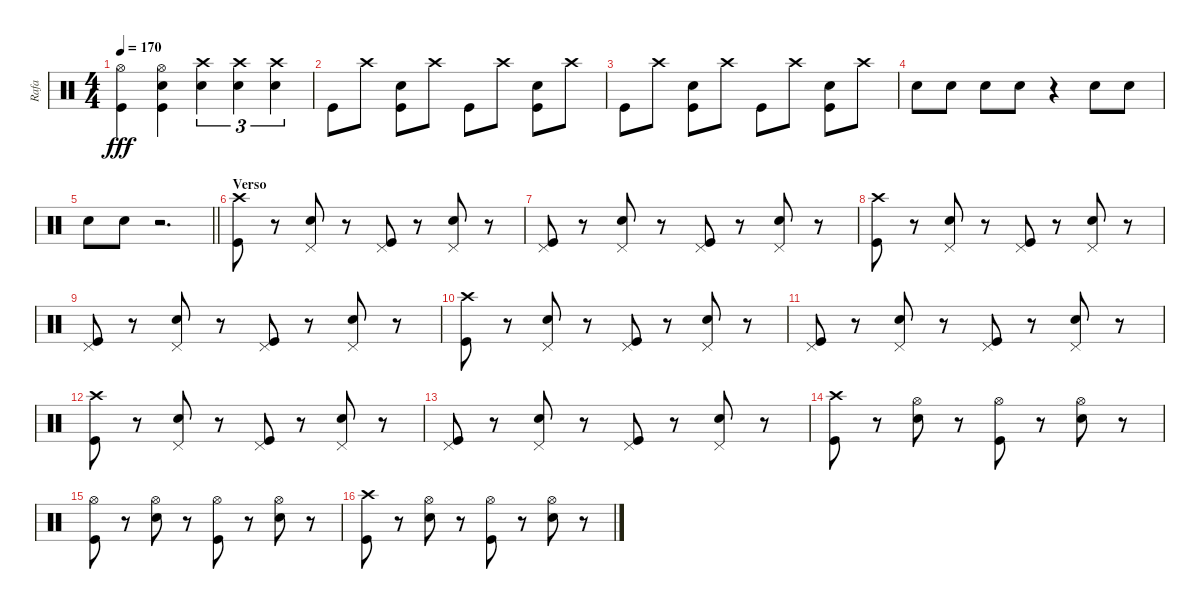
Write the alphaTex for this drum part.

\track ("Rafa" "Rafa") {instrument percussion}
\staff {score}
\articulation defaults
\ts (4 4)
\tempo 170
\clef neutral
\ks c
("Hi-Hat (open)" "Kick (hit)").4{dy fff} ("Hi-Hat (open)" "Electric Snare (hit)" "Kick (hit)").4 ("Crash high (hit)" "Electric Snare (hit)").4{tu (3 2)} ("Crash high (hit)" "Electric Snare (hit)").4{tu (3 2)} ("Crash high (hit)" "Electric Snare (hit)").4{tu (3 2)} |
"Kick (hit)".8 "Crash high (hit)".8 ("Electric Snare (hit)" "Kick (hit)").8 "Crash high (hit)".8 "Kick (hit)".8 "Crash high (hit)".8 ("Electric Snare (hit)" "Kick (hit)").8 "Crash high (hit)".8 |
"Kick (hit)".8 "Crash high (hit)".8 ("Electric Snare (hit)" "Kick (hit)").8 "Crash high (hit)".8 "Kick (hit)".8 "Crash high (hit)".8 ("Electric Snare (hit)" "Kick (hit)").8 "Crash high (hit)".8 |
"Electric Snare (hit)".8 "Electric Snare (hit)".8 "Electric Snare (hit)".8 "Electric Snare (hit)".8 r.4 "Electric Snare (hit)".8 "Electric Snare (hit)".8 |
\barLineRight lightlight "Electric Snare (hit)".8 "Electric Snare (hit)".8
r.2{d} |
\section ("" "Verso")
("Crash high (hit)" "Kick (hit)").8 r.8 ("Pedal Hi-Hat (hit)" "Electric Snare (hit)").8 r.8 ("Pedal Hi-Hat (hit)" "Kick (hit)").8 r.8 ("Pedal Hi-Hat (hit)" "Electric Snare (hit)").8 r.8 |
("Pedal Hi-Hat (hit)" "Kick (hit)").8 r.8 ("Pedal Hi-Hat (hit)" "Electric Snare (hit)").8 r.8 ("Pedal Hi-Hat (hit)" "Kick (hit)").8 r.8 ("Pedal Hi-Hat (hit)" "Electric Snare (hit)").8 r.8 |
("Crash high (hit)" "Kick (hit)").8 r.8 ("Pedal Hi-Hat (hit)" "Electric Snare (hit)").8 r.8 ("Pedal Hi-Hat (hit)" "Kick (hit)").8 r.8 ("Pedal Hi-Hat (hit)" "Electric Snare (hit)").8 r.8 |
("Pedal Hi-Hat (hit)" "Kick (hit)").8 r.8 ("Pedal Hi-Hat (hit)" "Electric Snare (hit)").8 r.8 ("Pedal Hi-Hat (hit)" "Kick (hit)").8 r.8 ("Pedal Hi-Hat (hit)" "Electric Snare (hit)").8 r.8 |
("Crash high (hit)" "Kick (hit)").8 r.8 ("Pedal Hi-Hat (hit)" "Electric Snare (hit)").8 r.8 ("Pedal Hi-Hat (hit)" "Kick (hit)").8 r.8 ("Pedal Hi-Hat (hit)" "Electric Snare (hit)").8 r.8 |
("Pedal Hi-Hat (hit)" "Kick (hit)").8 r.8 ("Pedal Hi-Hat (hit)" "Electric Snare (hit)").8 r.8 ("Pedal Hi-Hat (hit)" "Kick (hit)").8 r.8 ("Pedal Hi-Hat (hit)" "Electric Snare (hit)").8 r.8 |
("Crash high (hit)" "Kick (hit)").8 r.8 ("Pedal Hi-Hat (hit)" "Electric Snare (hit)").8 r.8 ("Pedal Hi-Hat (hit)" "Kick (hit)").8 r.8 ("Pedal Hi-Hat (hit)" "Electric Snare (hit)").8 r.8 |
("Pedal Hi-Hat (hit)" "Kick (hit)").8 r.8 ("Pedal Hi-Hat (hit)" "Electric Snare (hit)").8 r.8 ("Pedal Hi-Hat (hit)" "Kick (hit)").8 r.8 ("Pedal Hi-Hat (hit)" "Electric Snare (hit)").8 r.8 |
("Crash high (hit)" "Kick (hit)").8 r.8 ("Hi-Hat (open)" "Electric Snare (hit)").8 r.8 ("Hi-Hat (open)" "Kick (hit)").8 r.8 ("Hi-Hat (open)" "Electric Snare (hit)").8 r.8 |
("Hi-Hat (open)" "Kick (hit)").8 r.8 ("Hi-Hat (open)" "Electric Snare (hit)").8 r.8 ("Hi-Hat (open)" "Kick (hit)").8 r.8 ("Hi-Hat (open)" "Electric Snare (hit)").8 r.8 |
("Crash high (hit)" "Kick (hit)").8 r.8 ("Hi-Hat (open)" "Electric Snare (hit)").8 r.8 ("Hi-Hat (open)" "Kick (hit)").8 r.8 ("Hi-Hat (open)" "Electric Snare (hit)").8 r.8
